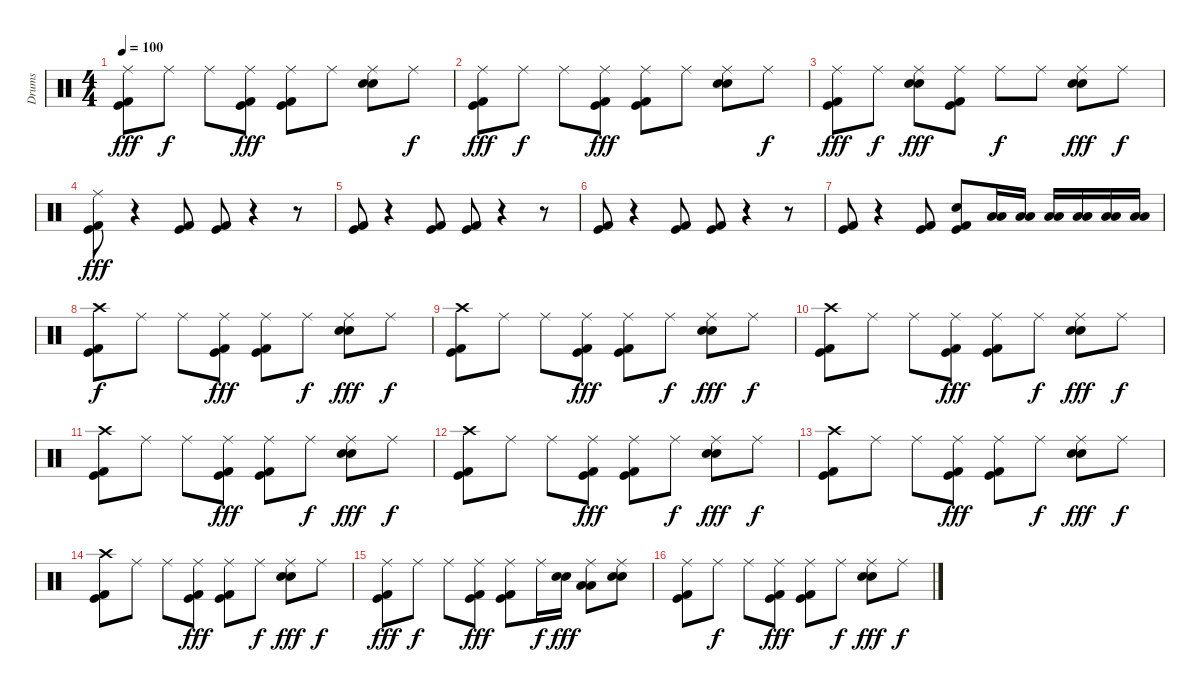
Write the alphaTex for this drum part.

\track ("Drums" "Drums") {instrument percussion}
\staff {score}
\articulation defaults
\ts (4 4)
\tempo 100
\clef neutral
\ks c
("Ride (middle)" "Kick (hit) 2" "Kick (hit)").8{dy fff} "Ride (middle)".8{dy f} "Ride (middle)".8 ("Ride (middle)" "Kick (hit) 2" "Kick (hit)").8{dy fff} ("Ride (middle)" "Kick (hit) 2" "Kick (hit)").8 "Ride (middle)".8 ("Ride (middle)" "Electric Snare (hit)" "Snare (hit) 2").8 "Ride (middle)".8{dy f} |
("Ride (middle)" "Kick (hit) 2" "Kick (hit)").8{dy fff} "Ride (middle)".8{dy f} "Ride (middle)".8 ("Ride (middle)" "Kick (hit) 2" "Kick (hit)").8{dy fff} ("Ride (middle)" "Kick (hit) 2" "Kick (hit)").8 "Ride (middle)".8 ("Ride (middle)" "Electric Snare (hit)" "Snare (hit) 2").8 "Ride (middle)".8{dy f} |
("Ride (middle)" "Kick (hit) 2" "Kick (hit)").8{dy fff} "Ride (middle)".8{dy f} ("Ride (middle)" "Electric Snare (hit)" "Snare (hit) 2").8{dy fff} ("Ride (middle)" "Kick (hit) 2" "Kick (hit)").8 "Ride (middle)".8{dy f} "Ride (middle)".8 ("Ride (middle)" "Electric Snare (hit)" "Snare (hit) 2").8{dy fff} "Ride (middle)".8{dy f} |
("Ride (middle)" "Kick (hit) 2" "Kick (hit)").8{dy fff} r.4 ("Kick (hit) 2" "Kick (hit)").8 ("Kick (hit) 2" "Kick (hit)").8 r.4 r.8 |
("Kick (hit) 2" "Kick (hit)").8 r.4 ("Kick (hit) 2" "Kick (hit)").8 ("Kick (hit) 2" "Kick (hit)").8 r.4 r.8 |
("Kick (hit) 2" "Kick (hit)").8 r.4 ("Kick (hit) 2" "Kick (hit)").8 ("Kick (hit) 2" "Kick (hit)").8 r.4 r.8 |
("Kick (hit) 2" "Kick (hit)").8 r.4 ("Kick (hit) 2" "Kick (hit)").8 ("Kick (hit) 2" "Kick (hit)" "Snare (hit) 2").8 ("Low Tom (hit)" "Low Tom (hit)").16 ("Low Tom (hit)" "Low Tom (hit)").16 ("Low Tom (hit)" "Low Tom (hit)").16 ("Low Tom (hit)" "Low Tom (hit)").16 ("Low Tom (hit)" "Low Tom (hit)").16 ("Low Tom (hit)" "Low Tom (hit)").16 |
("Crash high (hit)" "Kick (hit) 2" "Kick (hit)").8{dy f} "Ride (middle)".8 "Ride (middle)".8 ("Ride (middle)" "Kick (hit) 2" "Kick (hit)").8{dy fff} ("Ride (middle)" "Kick (hit) 2" "Kick (hit)").8 "Ride (middle)".8{dy f} ("Ride (middle)" "Electric Snare (hit)" "Snare (hit) 2").8{dy fff} "Ride (middle)".8{dy f} |
("Crash high (hit)" "Kick (hit) 2" "Kick (hit)").8 "Ride (middle)".8 "Ride (middle)".8 ("Ride (middle)" "Kick (hit) 2" "Kick (hit)").8{dy fff} ("Ride (middle)" "Kick (hit) 2" "Kick (hit)").8 "Ride (middle)".8{dy f} ("Ride (middle)" "Electric Snare (hit)" "Snare (hit) 2").8{dy fff} "Ride (middle)".8{dy f} |
("Crash high (hit)" "Kick (hit) 2" "Kick (hit)").8 "Ride (middle)".8 "Ride (middle)".8 ("Ride (middle)" "Kick (hit) 2" "Kick (hit)").8{dy fff} ("Ride (middle)" "Kick (hit) 2" "Kick (hit)").8 "Ride (middle)".8{dy f} ("Ride (middle)" "Electric Snare (hit)" "Snare (hit) 2").8{dy fff} "Ride (middle)".8{dy f} |
("Crash high (hit)" "Kick (hit) 2" "Kick (hit)").8 "Ride (middle)".8 "Ride (middle)".8 ("Ride (middle)" "Kick (hit) 2" "Kick (hit)").8{dy fff} ("Ride (middle)" "Kick (hit) 2" "Kick (hit)").8 "Ride (middle)".8{dy f} ("Ride (middle)" "Electric Snare (hit)" "Snare (hit) 2").8{dy fff} "Ride (middle)".8{dy f} |
("Crash high (hit)" "Kick (hit) 2" "Kick (hit)").8 "Ride (middle)".8 "Ride (middle)".8 ("Ride (middle)" "Kick (hit) 2" "Kick (hit)").8{dy fff} ("Ride (middle)" "Kick (hit) 2" "Kick (hit)").8 "Ride (middle)".8{dy f} ("Ride (middle)" "Electric Snare (hit)" "Snare (hit) 2").8{dy fff} "Ride (middle)".8{dy f} |
("Crash high (hit)" "Kick (hit) 2" "Kick (hit)").8 "Ride (middle)".8 "Ride (middle)".8 ("Ride (middle)" "Kick (hit) 2" "Kick (hit)").8{dy fff} ("Ride (middle)" "Kick (hit) 2" "Kick (hit)").8 "Ride (middle)".8{dy f} ("Ride (middle)" "Electric Snare (hit)" "Snare (hit) 2").8{dy fff} "Ride (middle)".8{dy f} |
("Crash high (hit)" "Kick (hit) 2" "Kick (hit)").8 "Ride (middle)".8 "Ride (middle)".8 ("Ride (middle)" "Kick (hit) 2" "Kick (hit)").8{dy fff} ("Ride (middle)" "Kick (hit) 2" "Kick (hit)").8 "Ride (middle)".8{dy f} ("Ride (middle)" "Electric Snare (hit)" "Snare (hit) 2").8{dy fff} "Ride (middle)".8{dy f} |
("Ride (middle)" "Kick (hit) 2" "Kick (hit)").8{dy fff} "Ride (middle)".8{dy f} "Ride (middle)".8 ("Ride (middle)" "Kick (hit) 2" "Kick (hit)").8{dy fff} ("Ride (middle)" "Kick (hit) 2" "Kick (hit)").8 "Ride (middle)".16{dy f} ("Electric Snare (hit)" "Snare (hit) 2").16{dy fff} ("Ride (middle)" "Low Tom (hit)" "Low Tom (hit)").8 ("Ride (middle)" "Electric Snare (hit)" "Snare (hit) 2").8 |
("Ride (middle)" "Kick (hit) 2" "Kick (hit)").8 "Ride (middle)".8{dy f} "Ride (middle)".8 ("Ride (middle)" "Kick (hit) 2" "Kick (hit)").8{dy fff} ("Ride (middle)" "Kick (hit) 2" "Kick (hit)").8 "Ride (middle)".8{dy f} ("Ride (middle)" "Electric Snare (hit)" "Electric Snare (hit)").8{dy fff} "Ride (middle)".8{dy f}
